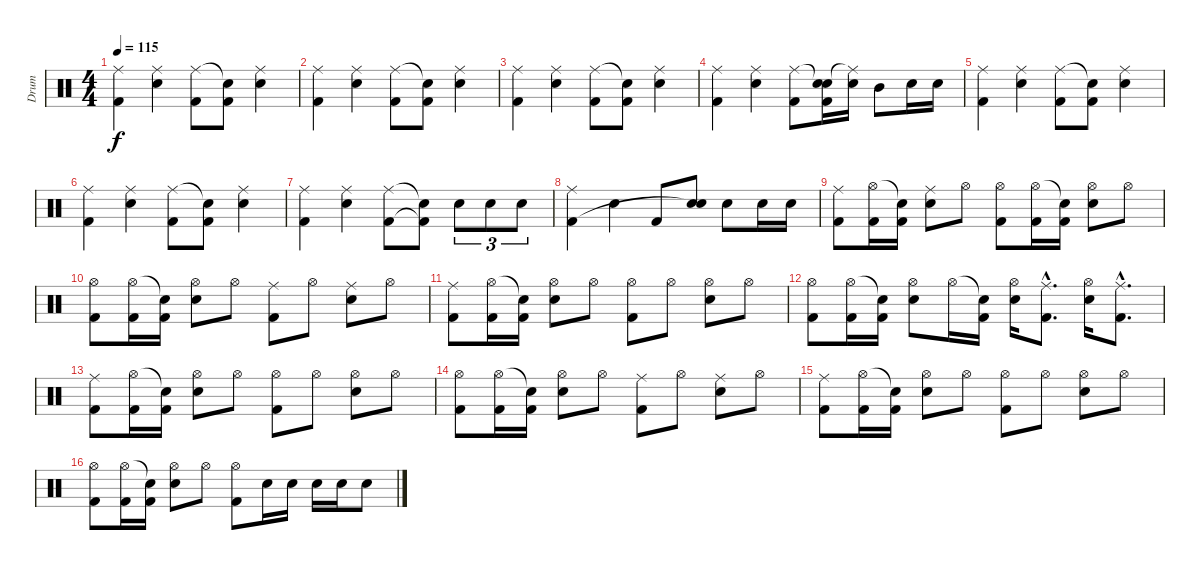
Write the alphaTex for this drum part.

\track ("Drum" "Drum") {instrument percussion}
\staff {score}
\articulation defaults
\ts (4 4)
\tempo 115
\clef neutral
\ks c
("Ride (middle)" "Kick (hit) 2").4{dy f} ("Ride (middle)" "Electric Snare (hit)").4 ("Ride (middle)" "Kick (hit) 2").8 ("Snare (hit)"{t} "Kick (hit) 2").8 ("Ride (middle)" "Electric Snare (hit)").4 |
("Ride (middle)" "Kick (hit) 2").4 ("Ride (middle)" "Electric Snare (hit)").4 ("Ride (middle)" "Kick (hit) 2").8 ("Snare (hit)"{t} "Kick (hit) 2").8 ("Ride (middle)" "Electric Snare (hit)").4 |
("Ride (middle)" "Kick (hit) 2").4 ("Ride (middle)" "Electric Snare (hit)").4 ("Ride (middle)" "Kick (hit) 2").8 ("Snare (hit)"{t} "Kick (hit) 2").8 ("Ride (middle)" "Electric Snare (hit)").4 |
("Ride (middle)" "Kick (hit) 2").4 ("Ride (middle)" "Electric Snare (hit)").4 ("Ride (middle)" "Kick (hit) 2").8 ("Snare (hit)"{t} "Electric Snare (hit)" "Kick (hit) 2").16 ("Ride (middle)"{t} "Electric Snare (hit)").16 "Mid Tom (hit)".8 "Electric Snare (hit)".16 "Electric Snare (hit)".16 |
("Ride (middle)" "Kick (hit) 2").4 ("Ride (middle)" "Electric Snare (hit)").4 ("Ride (middle)" "Kick (hit) 2").8 ("Snare (hit)"{t} "Kick (hit) 2").8 ("Ride (middle)" "Electric Snare (hit)").4 |
("Ride (middle)" "Kick (hit) 2").4 ("Ride (middle)" "Electric Snare (hit)").4 ("Ride (middle)" "Kick (hit) 2").8 ("Snare (hit)"{t} "Kick (hit) 2").8 ("Ride (middle)" "Electric Snare (hit)").4 |
("Ride (middle)" "Kick (hit) 2").4 ("Ride (middle)" "Electric Snare (hit)").4 ("Ride (middle)" "Kick (hit) 2").8 ("Snare (hit)"{t} "Kick (hit) 2"{t}).8 "Electric Snare (hit)".8{tu (3 2)} "Electric Snare (hit)".8{tu (3 2)} "Electric Snare (hit)".8{tu (3 2)} |
("Ride (middle)" "Kick (hit) 2").4 "Electric Snare (hit)".4 "Kick (hit) 2".8 ("Electric Snare (hit)" "Snare (hit)"{t}).8 "Electric Snare (hit)".8 "Electric Snare (hit)".16 "Electric Snare (hit)".16 |
("Ride (middle)" "Kick (hit) 2").8 ("Hi-Hat (open)" "Kick (hit) 2").16 ("Snare (hit)"{t} "Kick (hit) 2").16 ("Ride (middle)" "Electric Snare (hit)").8 "Hi-Hat (open)".8 ("Hi-Hat (open)" "Kick (hit) 2").8 ("Hi-Hat (open)" "Kick (hit) 2").16 ("Snare (hit)"{t} "Kick (hit) 2").16 ("Hi-Hat (open)" "Electric Snare (hit)").8 "Hi-Hat (open)".8 |
("Hi-Hat (open)" "Kick (hit) 2").8 ("Hi-Hat (open)" "Kick (hit) 2").16 ("Snare (hit)"{t} "Kick (hit) 2").16 ("Hi-Hat (open)" "Electric Snare (hit)").8 "Hi-Hat (open)".8 ("Ride (middle)" "Kick (hit) 2").8 "Hi-Hat (open)".8 ("Ride (middle)" "Electric Snare (hit)").8 "Hi-Hat (open)".8 |
("Ride (middle)" "Kick (hit) 2").8 ("Hi-Hat (open)" "Kick (hit) 2").16 ("Snare (hit)"{t} "Kick (hit) 2").16 ("Hi-Hat (open)" "Electric Snare (hit)").8 "Hi-Hat (open)".8 ("Hi-Hat (open)" "Kick (hit) 2").8 "Hi-Hat (open)".8 ("Hi-Hat (open)" "Electric Snare (hit)").8 "Hi-Hat (open)".8 |
("Hi-Hat (open)" "Kick (hit) 2").8 ("Hi-Hat (open)" "Kick (hit) 2").16 ("Snare (hit)"{t} "Kick (hit) 2").16 ("Hi-Hat (open)" "Electric Snare (hit)").8 "Hi-Hat (open)".16 ("Snare (hit)"{t} "Kick (hit) 2").16 ("Hi-Hat (open)" "Electric Snare (hit)").16 ("Ride (middle)"{hac} "Kick (hit) 2"{hac}).8{d} ("Hi-Hat (open)" "Electric Snare (hit)").16 ("Ride (middle)"{hac} "Kick (hit) 2"{hac}).8{d} |
("Ride (middle)" "Kick (hit) 2").8 ("Hi-Hat (open)" "Kick (hit) 2").16 ("Snare (hit)"{t} "Kick (hit) 2").16 ("Hi-Hat (open)" "Electric Snare (hit)").8 "Hi-Hat (open)".8 ("Hi-Hat (open)" "Kick (hit) 2").8 "Hi-Hat (open)".8 ("Hi-Hat (open)" "Electric Snare (hit)").8 "Hi-Hat (open)".8 |
("Hi-Hat (open)" "Kick (hit) 2").8 ("Hi-Hat (open)" "Kick (hit) 2").16 ("Snare (hit)"{t} "Kick (hit) 2").16 ("Hi-Hat (open)" "Electric Snare (hit)").8 "Hi-Hat (open)".8 ("Ride (middle)" "Kick (hit) 2").8 "Hi-Hat (open)".8 ("Ride (middle)" "Electric Snare (hit)").8 "Hi-Hat (open)".8 |
("Ride (middle)" "Kick (hit) 2").8 ("Hi-Hat (open)" "Kick (hit) 2").16 ("Snare (hit)"{t} "Kick (hit) 2").16 ("Hi-Hat (open)" "Electric Snare (hit)").8 "Hi-Hat (open)".8 ("Hi-Hat (open)" "Kick (hit) 2").8 "Hi-Hat (open)".8 ("Hi-Hat (open)" "Electric Snare (hit)").8 "Hi-Hat (open)".8 |
("Hi-Hat (open)" "Kick (hit) 2").8 ("Hi-Hat (open)" "Kick (hit) 2").16 ("Snare (hit)"{t} "Kick (hit) 2").16 ("Hi-Hat (open)" "Electric Snare (hit)").8 "Hi-Hat (open)".8 ("Hi-Hat (open)" "Kick (hit) 2").8 "Electric Snare (hit)".16 "Electric Snare (hit)".16 "Electric Snare (hit)".16 "Electric Snare (hit)".16 "Electric Snare (hit)".8
